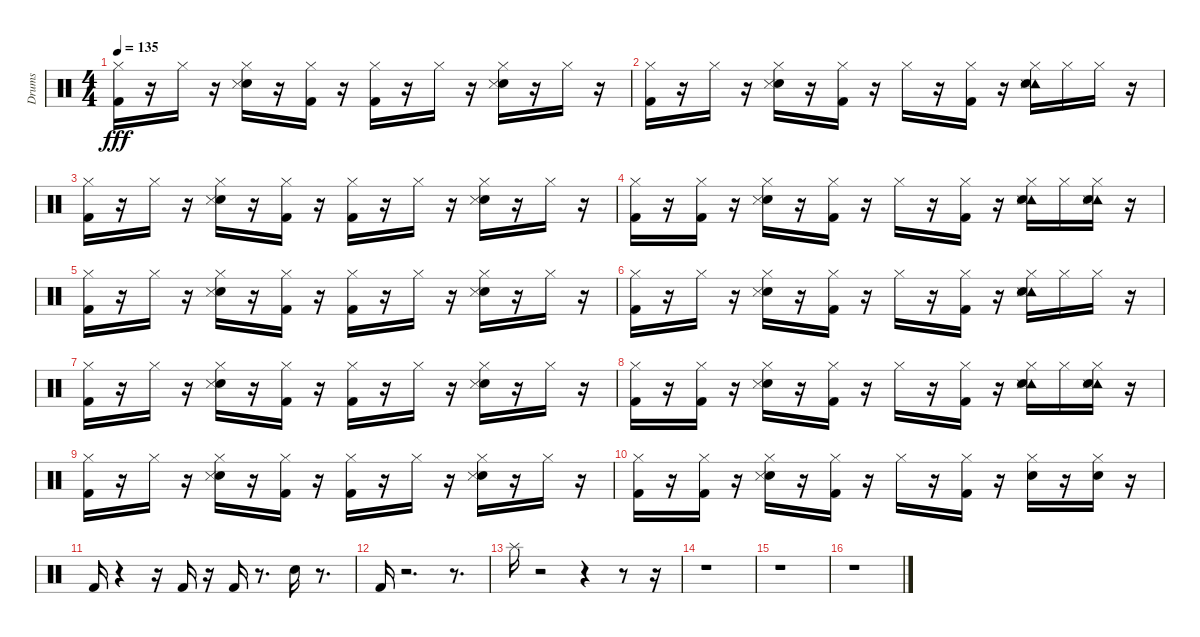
\track ("Drums" "Drums") {instrument percussion}
\staff {score}
\articulation defaults
\ts (4 4)
\tempo 135
\clef neutral
\ks c
("Kick (hit) 2" "Hi-Hat (closed)").16{dy fff} r.16 "Hi-Hat (closed)".16 r.16 ("Electric Snare (hit)" "Snare (side stick) 3" "Hi-Hat (closed)").16 r.16 ("Kick (hit) 2" "Hi-Hat (closed)").16 r.16 ("Kick (hit) 2" "Hi-Hat (closed)").16 r.16 "Hi-Hat (closed)".16 r.16 ("Electric Snare (hit)" "Snare (side stick) 3" "Hi-Hat (closed)").16 r.16 "Hi-Hat (closed)".16 r.16 |
("Kick (hit) 2" "Hi-Hat (closed)").16 r.16 "Hi-Hat (closed)".16 r.16 ("Electric Snare (hit)" "Snare (side stick) 3" "Hi-Hat (closed)").16 r.16 ("Kick (hit) 2" "Hi-Hat (closed)").16 r.16 "Hi-Hat (closed)".16 r.16 ("Kick (hit) 2" "Hi-Hat (closed)").16 r.16 ("Tambourine (hit)" "Electric Snare (hit)" "Snare (side stick) 3" "Hi-Hat (closed)").16 "Hi-Hat (closed)".16 "Hi-Hat (closed)".16 r.16 |
("Kick (hit) 2" "Hi-Hat (closed)").16 r.16 "Hi-Hat (closed)".16 r.16 ("Electric Snare (hit)" "Snare (side stick) 3" "Hi-Hat (closed)").16 r.16 ("Kick (hit) 2" "Hi-Hat (closed)").16 r.16 ("Kick (hit) 2" "Hi-Hat (closed)").16 r.16 "Hi-Hat (closed)".16 r.16 ("Electric Snare (hit)" "Snare (side stick) 3" "Hi-Hat (closed)").16 r.16 "Hi-Hat (closed)".16 r.16 |
("Hi-Hat (closed)" "Kick (hit) 2").16 r.16 ("Kick (hit) 2" "Hi-Hat (closed)").16 r.16 ("Electric Snare (hit)" "Hi-Hat (closed)" "Snare (side stick) 3").16 r.16 ("Hi-Hat (closed)" "Kick (hit) 2").16 r.16 "Hi-Hat (closed)".16 r.16 ("Hi-Hat (closed)" "Kick (hit) 2").16 r.16 ("Tambourine (hit)" "Electric Snare (hit)" "Hi-Hat (closed)" "Snare (side stick) 3").16 "Hi-Hat (closed)".16 ("Tambourine (hit)" "Snare (side stick) 3" "Electric Snare (hit)" "Hi-Hat (closed)").16 r.16 |
("Kick (hit) 2" "Hi-Hat (closed)").16 r.16 "Hi-Hat (closed)".16 r.16 ("Electric Snare (hit)" "Snare (side stick) 3" "Hi-Hat (closed)").16 r.16 ("Kick (hit) 2" "Hi-Hat (closed)").16 r.16 ("Kick (hit) 2" "Hi-Hat (closed)").16 r.16 "Hi-Hat (closed)".16 r.16 ("Electric Snare (hit)" "Snare (side stick) 3" "Hi-Hat (closed)").16 r.16 "Hi-Hat (closed)".16 r.16 |
("Kick (hit) 2" "Hi-Hat (closed)").16 r.16 "Hi-Hat (closed)".16 r.16 ("Electric Snare (hit)" "Snare (side stick) 3" "Hi-Hat (closed)").16 r.16 ("Kick (hit) 2" "Hi-Hat (closed)").16 r.16 "Hi-Hat (closed)".16 r.16 ("Kick (hit) 2" "Hi-Hat (closed)").16 r.16 ("Tambourine (hit)" "Electric Snare (hit)" "Snare (side stick) 3" "Hi-Hat (closed)").16 "Hi-Hat (closed)".16 "Hi-Hat (closed)".16 r.16 |
("Kick (hit) 2" "Hi-Hat (closed)").16 r.16 "Hi-Hat (closed)".16 r.16 ("Electric Snare (hit)" "Snare (side stick) 3" "Hi-Hat (closed)").16 r.16 ("Kick (hit) 2" "Hi-Hat (closed)").16 r.16 ("Kick (hit) 2" "Hi-Hat (closed)").16 r.16 "Hi-Hat (closed)".16 r.16 ("Electric Snare (hit)" "Snare (side stick) 3" "Hi-Hat (closed)").16 r.16 "Hi-Hat (closed)".16 r.16 |
("Hi-Hat (closed)" "Kick (hit) 2").16 r.16 ("Kick (hit) 2" "Hi-Hat (closed)").16 r.16 ("Electric Snare (hit)" "Hi-Hat (closed)" "Snare (side stick) 3").16 r.16 ("Hi-Hat (closed)" "Kick (hit) 2").16 r.16 "Hi-Hat (closed)".16 r.16 ("Hi-Hat (closed)" "Kick (hit) 2").16 r.16 ("Tambourine (hit)" "Snare (side stick) 3" "Electric Snare (hit)" "Hi-Hat (closed)").16 "Hi-Hat (closed)".16 ("Tambourine (hit)" "Snare (side stick) 3" "Electric Snare (hit)" "Hi-Hat (closed)").16 r.16 |
("Kick (hit) 2" "Hi-Hat (closed)").16 r.16 "Hi-Hat (closed)".16 r.16 ("Electric Snare (hit)" "Snare (side stick) 3" "Hi-Hat (closed)").16 r.16 ("Kick (hit) 2" "Hi-Hat (closed)").16 r.16 ("Kick (hit) 2" "Hi-Hat (closed)").16 r.16 "Hi-Hat (closed)".16 r.16 ("Electric Snare (hit)" "Snare (side stick) 3" "Hi-Hat (closed)").16 r.16 "Hi-Hat (closed)".16 r.16 |
("Hi-Hat (closed)" "Kick (hit) 2").16 r.16 ("Kick (hit) 2" "Hi-Hat (closed)").16 r.16 ("Electric Snare (hit)" "Hi-Hat (closed)" "Snare (side stick) 3").16 r.16 ("Hi-Hat (closed)" "Kick (hit) 2").16 r.16 "Hi-Hat (closed)".16 r.16 ("Hi-Hat (closed)" "Kick (hit) 2").16 r.16 ("Electric Snare (hit)" "Hi-Hat (closed)").16 r.16 ("Electric Snare (hit)" "Hi-Hat (closed)").16 r.16 |
"Kick (hit) 2".16 r.4 r.16 "Kick (hit) 2".16 r.16 "Kick (hit) 2".16 r.8{d} "Electric Snare (hit)".16 r.8{d} |
"Kick (hit) 2".16 r.2{d} r.8{d} |
"Splash (hit)".16 r.2 r.4 r.8 r.16 |
r.1 |
r.1 |
r.1
